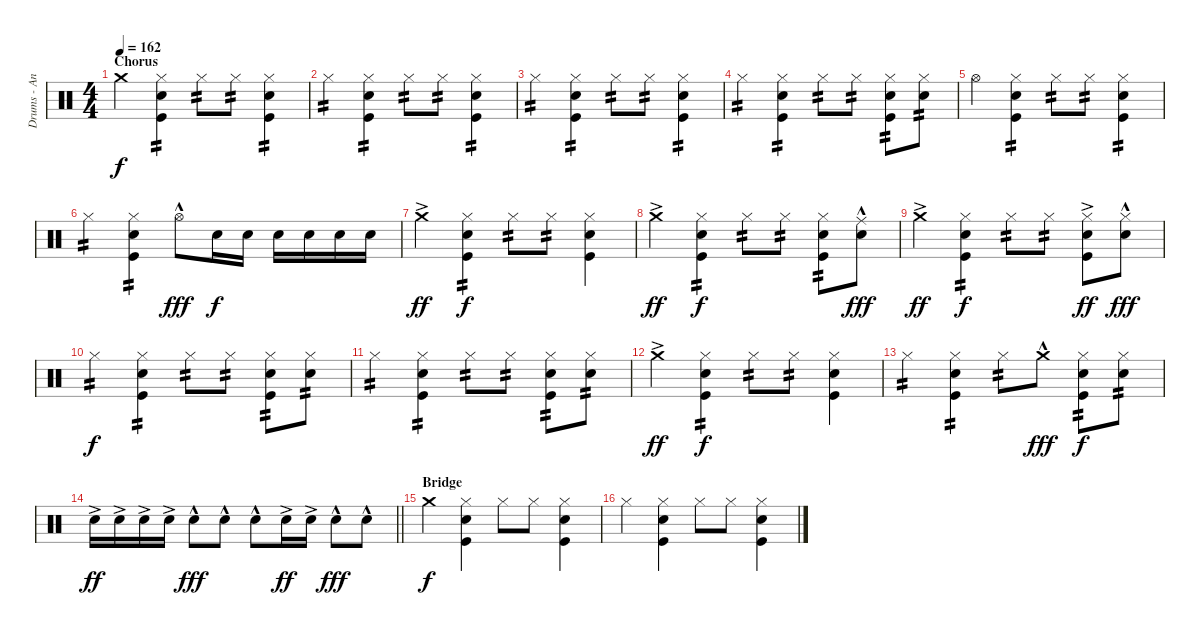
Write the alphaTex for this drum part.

\track ("Drums - Andriushkin" "Drums - An") {instrument percussion}
\staff {score}
\articulation defaults
\ts (4 4)
\section ("" "Chorus")
\tempo 162
\clef neutral
\ks c "Crash medium (hit)".4{dy f}
("Hi-Hat (closed)" "Electric Snare (hit)" "Kick (hit)").4{tp 2} "Hi-Hat (closed)".8{tp 2} "Hi-Hat (closed)".8{tp 2} ("Hi-Hat (closed)" "Electric Snare (hit)" "Kick (hit)").4{tp 2} |
"Hi-Hat (closed)".4{tp 2} ("Hi-Hat (closed)" "Electric Snare (hit)" "Kick (hit)").4{tp 2} "Hi-Hat (closed)".8{tp 2} "Hi-Hat (closed)".8{tp 2} ("Hi-Hat (closed)" "Electric Snare (hit)" "Kick (hit)").4{tp 2} |
"Hi-Hat (closed)".4{tp 2} ("Hi-Hat (closed)" "Electric Snare (hit)" "Kick (hit)").4{tp 2} "Hi-Hat (closed)".8{tp 2} "Hi-Hat (closed)".8{tp 2} ("Hi-Hat (closed)" "Electric Snare (hit)" "Kick (hit)").4{tp 2} |
"Hi-Hat (closed)".4{tp 2} ("Hi-Hat (closed)" "Electric Snare (hit)" "Kick (hit)").4{tp 2} "Hi-Hat (closed)".8{tp 2} "Hi-Hat (closed)".8{tp 2} ("Hi-Hat (closed)" "Electric Snare (hit)" "Kick (hit)").8{tp 2} ("Hi-Hat (closed)" "Electric Snare (hit)").8{tp 2} |
"Hi-Hat (open)".4 ("Hi-Hat (closed)" "Electric Snare (hit)" "Kick (hit)").4{tp 2} "Hi-Hat (closed)".8{tp 2} "Hi-Hat (closed)".8{tp 2} ("Hi-Hat (closed)" "Electric Snare (hit)" "Kick (hit)").4{tp 2} |
"Hi-Hat (closed)".4{tp 2} ("Hi-Hat (closed)" "Electric Snare (hit)" "Kick (hit)").4{tp 2} "Hi-Hat (open)"{hac}.8{dy fff} "Electric Snare (hit)".16{dy f} "Electric Snare (hit)".16 "Electric Snare (hit)".16 "Electric Snare (hit)".16 "Electric Snare (hit)".16 "Electric Snare (hit)".16 |
"Crash medium (hit)"{ac}.4{dy ff} ("Hi-Hat (closed)" "Electric Snare (hit)" "Kick (hit)").4{tp 2 dy f} "Hi-Hat (closed)".8{tp 2} "Hi-Hat (closed)".8{tp 2} ("Hi-Hat (closed)" "Electric Snare (hit)" "Kick (hit)").4 |
"Crash medium (hit)"{ac}.4{dy ff} ("Hi-Hat (closed)" "Electric Snare (hit)" "Kick (hit)").4{tp 2 dy f} "Hi-Hat (closed)".8{tp 2} "Hi-Hat (closed)".8{tp 2} ("Hi-Hat (closed)" "Electric Snare (hit)" "Kick (hit)").8{tp 2} ("Ride (middle)"{hac} "Electric Snare (hit)").8{dy fff} |
"Crash medium (hit)"{ac}.4{dy ff} ("Hi-Hat (closed)" "Electric Snare (hit)" "Kick (hit)").4{tp 2 dy f} "Hi-Hat (closed)".8{tp 2} "Hi-Hat (closed)".8{tp 2} ("Hi-Hat (closed)" "Electric Snare (hit)"{ac} "Kick (hit)").8{dy ff} ("Hi-Hat (closed)" "Electric Snare (hit)"{hac}).8{dy fff} |
"Hi-Hat (closed)".4{tp 2 dy f} ("Hi-Hat (closed)" "Electric Snare (hit)" "Kick (hit)").4{tp 2} "Hi-Hat (closed)".8{tp 2} "Hi-Hat (closed)".8{tp 2} ("Hi-Hat (closed)" "Electric Snare (hit)" "Kick (hit)").8{tp 2} ("Hi-Hat (closed)" "Electric Snare (hit)").8{tp 2} |
"Hi-Hat (closed)".4{tp 2} ("Hi-Hat (closed)" "Electric Snare (hit)" "Kick (hit)").4{tp 2} "Hi-Hat (closed)".8{tp 2} "Hi-Hat (closed)".8{tp 2} ("Hi-Hat (closed)" "Electric Snare (hit)" "Kick (hit)").8{tp 2} ("Hi-Hat (closed)" "Electric Snare (hit)").8{tp 2} |
"Crash medium (hit)"{ac}.4{dy ff} ("Hi-Hat (closed)" "Electric Snare (hit)" "Kick (hit)").4{tp 2 dy f} "Hi-Hat (closed)".8{tp 2} "Hi-Hat (closed)".8{tp 2} ("Hi-Hat (closed)" "Electric Snare (hit)" "Kick (hit)").4 |
"Hi-Hat (closed)".4{tp 2} ("Hi-Hat (closed)" "Electric Snare (hit)" "Kick (hit)").4{tp 2} "Hi-Hat (closed)".8{tp 2} "Crash medium (hit)"{hac}.8{dy fff} ("Hi-Hat (closed)" "Electric Snare (hit)" "Kick (hit)").8{tp 2 dy f} ("Hi-Hat (closed)" "Electric Snare (hit)").8{tp 2} |
\barLineRight lightlight "Electric Snare (hit)"{ac}.16{dy ff} "Electric Snare (hit)"{ac}.16 "Electric Snare (hit)"{ac}.16 "Electric Snare (hit)"{ac}.16 "Electric Snare (hit)"{hac}.8{dy fff} "Electric Snare (hit)"{hac}.8 "Electric Snare (hit)"{hac}.8 "Electric Snare (hit)"{ac}.16{dy ff} "Electric Snare (hit)"{ac}.16 "Electric Snare (hit)"{hac}.8{dy fff} "Electric Snare (hit)"{hac}.8
|
\section ("" "Bridge")
"Crash medium (hit)".4{dy f} ("Hi-Hat (closed)" "Electric Snare (hit)" "Kick (hit)").4 "Hi-Hat (closed)".8 "Hi-Hat (closed)".8 ("Hi-Hat (closed)" "Electric Snare (hit)" "Kick (hit)").4 |
"Hi-Hat (closed)".4 ("Hi-Hat (closed)" "Electric Snare (hit)" "Kick (hit)").4 "Hi-Hat (closed)".8 "Hi-Hat (closed)".8 ("Hi-Hat (closed)" "Electric Snare (hit)" "Kick (hit)").4
